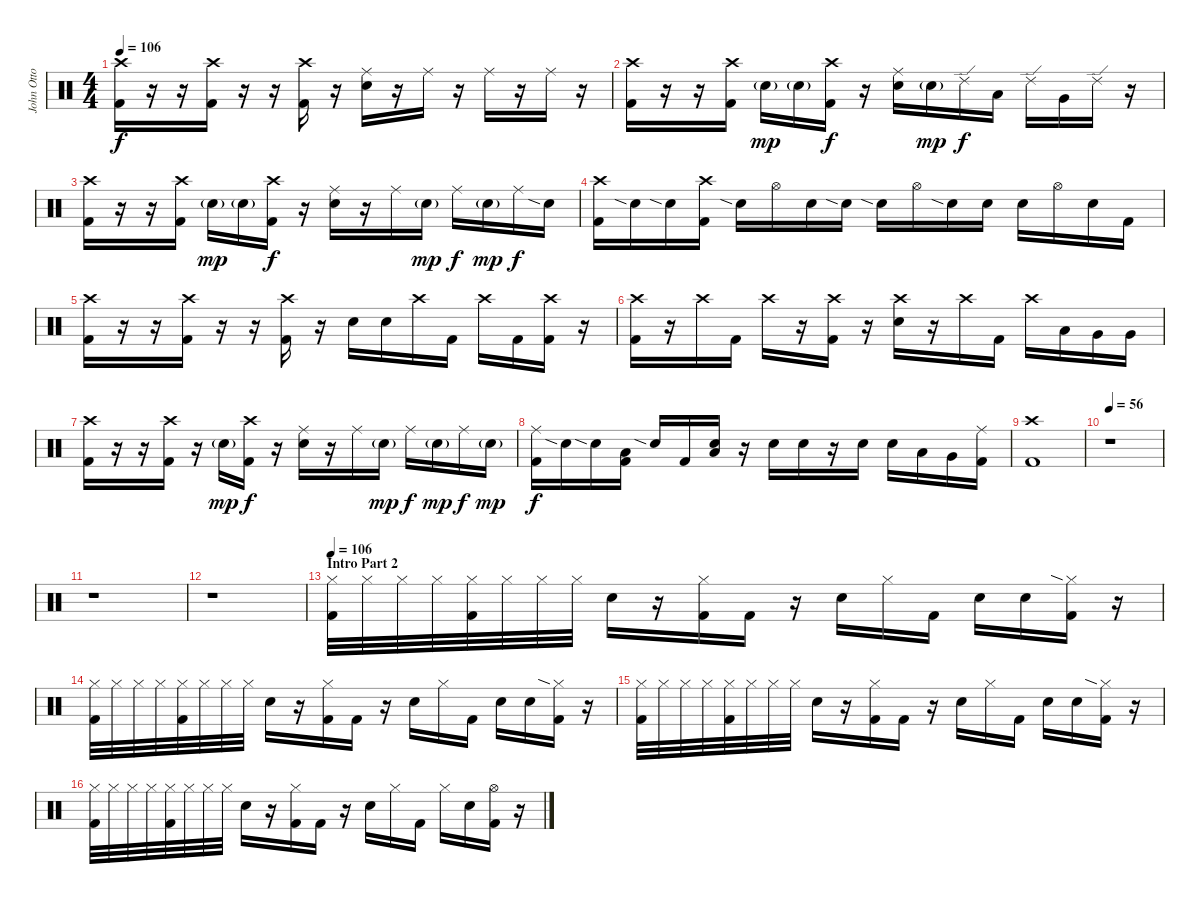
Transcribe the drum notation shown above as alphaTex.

\track ("John Otto - Drums" "John Otto ") {instrument percussion}
\staff {score}
\articulation defaults
\ts (4 4)
\tempo 106
\clef neutral
\ks c
("Crash high (hit)" "Kick (hit) 2").16{dy f} r.16 r.16 ("Crash high (hit)" "Kick (hit) 2").16 r.16 r.16 ("Crash high (hit)" "Kick (hit) 2").16 r.16 ("Ride (middle)" "Snare (hit) 2").16 r.16 "Ride (middle)".16 r.16 "Ride (middle)".16 r.16 "Ride (middle)".16 r.16 |
("Crash high (hit)" "Kick (hit) 2").16 r.16 r.16 ("Crash high (hit)" "Kick (hit) 2").16 "Snare (hit) 2"{g}.16{dy mp} "Snare (hit) 2"{g}.16 ("Crash high (hit)" "Kick (hit) 2").16{dy f} r.16 ("Ride (middle)" "Snare (hit) 2").16 "Snare (hit) 2"{g}.16{dy mp} "Ride (edge) 2".16{dy f} "Low Floor Tom (hit)".16 "Ride (edge) 2".16 "Very Low Tom (hit)".16 "Ride (edge) 2".16 r.16 |
("Crash high (hit)" "Kick (hit) 2").16 r.16 r.16 ("Crash high (hit)" "Kick (hit) 2").16 "Snare (hit) 2"{g}.16{dy mp} "Snare (hit) 2"{g}.16 ("Crash high (hit)" "Kick (hit) 2").16{dy f} r.16 ("Ride (middle)" "Snare (hit) 2").16 r.16 "Ride (middle)".16 "Snare (hit) 2"{g}.16{dy mp} "Ride (middle)".16{dy f} "Snare (hit) 2"{g}.16{dy mp} "Ride (middle)".16{dy f} "Snare (hit) 2"{sia}.16 |
("Crash high (hit)" "Kick (hit) 2").16 "Snare (hit) 2"{sia}.16 "Snare (hit) 2"{sia}.16 ("Crash high (hit)" "Kick (hit) 2").16 "Snare (hit) 2"{sia}.16 "Hi-Hat (open)".16 "Snare (hit) 2".16 "Snare (hit) 2"{sia}.16 "Snare (hit) 2"{sia}.16 "Hi-Hat (open)".16 "Snare (hit) 2"{sia}.16 "Snare (hit) 2".16 "Snare (hit) 2".16 "Hi-Hat (open)".16 "Snare (hit) 2".16 "Kick (hit) 2".16 |
("Crash high (hit)" "Kick (hit) 2").16 r.16 r.16 ("Crash high (hit)" "Kick (hit) 2").16 r.16 r.16 ("Crash high (hit)" "Kick (hit) 2").16 r.16 "Snare (hit) 2".16 "Snare (hit) 2".16 "Crash high (hit)".16 "Kick (hit) 2".16 "Crash high (hit)".16 "Kick (hit) 2".16 ("Crash high (hit)" "Kick (hit) 2").16 r.16 |
("Crash high (hit)" "Kick (hit) 2").16 r.16 "Crash high (hit)".16 "Kick (hit) 2".16 "Crash high (hit)".16 r.16 ("Crash high (hit)" "Kick (hit) 2").16 r.16 ("Crash high (hit)" "Snare (hit) 2").16 r.16 "Crash high (hit)".16 "Kick (hit) 2".16 "Crash high (hit)".16 "Low Floor Tom (hit)".16 "Very Low Tom (hit)".16 "Very Low Tom (hit)".16 |
("Crash high (hit)" "Kick (hit) 2").16 r.16 r.16 ("Crash high (hit)" "Kick (hit) 2").16 r.16 "Snare (hit) 2"{g}.16{dy mp} ("Crash high (hit)" "Kick (hit) 2").16{dy f} r.16 ("Ride (middle)" "Snare (hit) 2").16 r.16 "Ride (middle)".16 "Snare (hit) 2"{g}.16{dy mp} "Ride (middle)".16{dy f} "Snare (hit) 2"{g}.16{dy mp} "Ride (middle)".16{dy f} "Snare (hit) 2"{g}.16{dy mp} |
("Ride (middle)" "Kick (hit) 2").16{dy f} "Snare (hit) 2"{sia}.16 "Snare (hit) 2"{sia}.16 ("Low Floor Tom (hit)" "Kick (hit) 2").16 "Snare (hit) 2"{sia}.16 "Kick (hit) 2".16 ("Low Floor Tom (hit)" "Snare (hit) 2").16 r.16 "Snare (hit) 2".16 "Snare (hit) 2".16 r.16 "Snare (hit) 2".16 "Snare (hit) 2".16 "Low Floor Tom (hit)".16 "Very Low Tom (hit)".16 ("Ride (middle)" "Kick (hit) 2").16 |
("Crash high (hit)" "Kick (hit) 2").1 |
\tempo 56
r.1 |
r.1 |
r.1 |
\section ("" "Intro Part 2")
\tempo 106
("Hi-Hat (closed)" "Kick (hit) 2").32 "Hi-Hat (closed)".32 "Hi-Hat (closed)".32 "Hi-Hat (closed)".32 ("Hi-Hat (closed)" "Kick (hit) 2").32 "Hi-Hat (closed)".32 "Hi-Hat (closed)".32 "Hi-Hat (closed)".32 "Snare (hit) 2".16 r.16 ("Hi-Hat (closed)" "Kick (hit) 2").16 "Kick (hit) 2".16 r.16 "Snare (hit) 2".16 "Hi-Hat (closed)".16 "Kick (hit) 2".16 "Snare (hit) 2".16 "Snare (hit) 2".16 ("Hi-Hat (closed)"{sia} "Kick (hit) 2").16 r.16 |
("Hi-Hat (closed)" "Kick (hit) 2").32 "Hi-Hat (closed)".32 "Hi-Hat (closed)".32 "Hi-Hat (closed)".32 ("Hi-Hat (closed)" "Kick (hit) 2").32 "Hi-Hat (closed)".32 "Hi-Hat (closed)".32 "Hi-Hat (closed)".32 "Snare (hit) 2".16 r.16 ("Hi-Hat (closed)" "Kick (hit) 2").16 "Kick (hit) 2".16 r.16 "Snare (hit) 2".16 "Hi-Hat (closed)".16 "Kick (hit) 2".16 "Snare (hit) 2".16 "Snare (hit) 2".16 ("Hi-Hat (closed)"{sia} "Kick (hit) 2").16 r.16 |
("Hi-Hat (closed)" "Kick (hit) 2").32 "Hi-Hat (closed)".32 "Hi-Hat (closed)".32 "Hi-Hat (closed)".32 ("Hi-Hat (closed)" "Kick (hit) 2").32 "Hi-Hat (closed)".32 "Hi-Hat (closed)".32 "Hi-Hat (closed)".32 "Snare (hit) 2".16 r.16 ("Hi-Hat (closed)" "Kick (hit) 2").16 "Kick (hit) 2".16 r.16 "Snare (hit) 2".16 "Hi-Hat (closed)".16 "Kick (hit) 2".16 "Snare (hit) 2".16 "Snare (hit) 2".16 ("Hi-Hat (closed)"{sia} "Kick (hit) 2").16 r.16 |
("Hi-Hat (closed)" "Kick (hit) 2").32 "Hi-Hat (closed)".32 "Hi-Hat (closed)".32 "Hi-Hat (closed)".32 ("Hi-Hat (closed)" "Kick (hit) 2").32 "Hi-Hat (closed)".32 "Hi-Hat (closed)".32 "Hi-Hat (closed)".32 "Snare (hit) 2".16 r.16 ("Hi-Hat (closed)" "Kick (hit) 2").16 "Kick (hit) 2".16 r.16 "Snare (hit) 2".16 "Hi-Hat (closed)".16 "Kick (hit) 2".16 "Hi-Hat (closed)".16 "Snare (hit) 2".16 ("Hi-Hat (open)" "Kick (hit) 2").16 r.16
